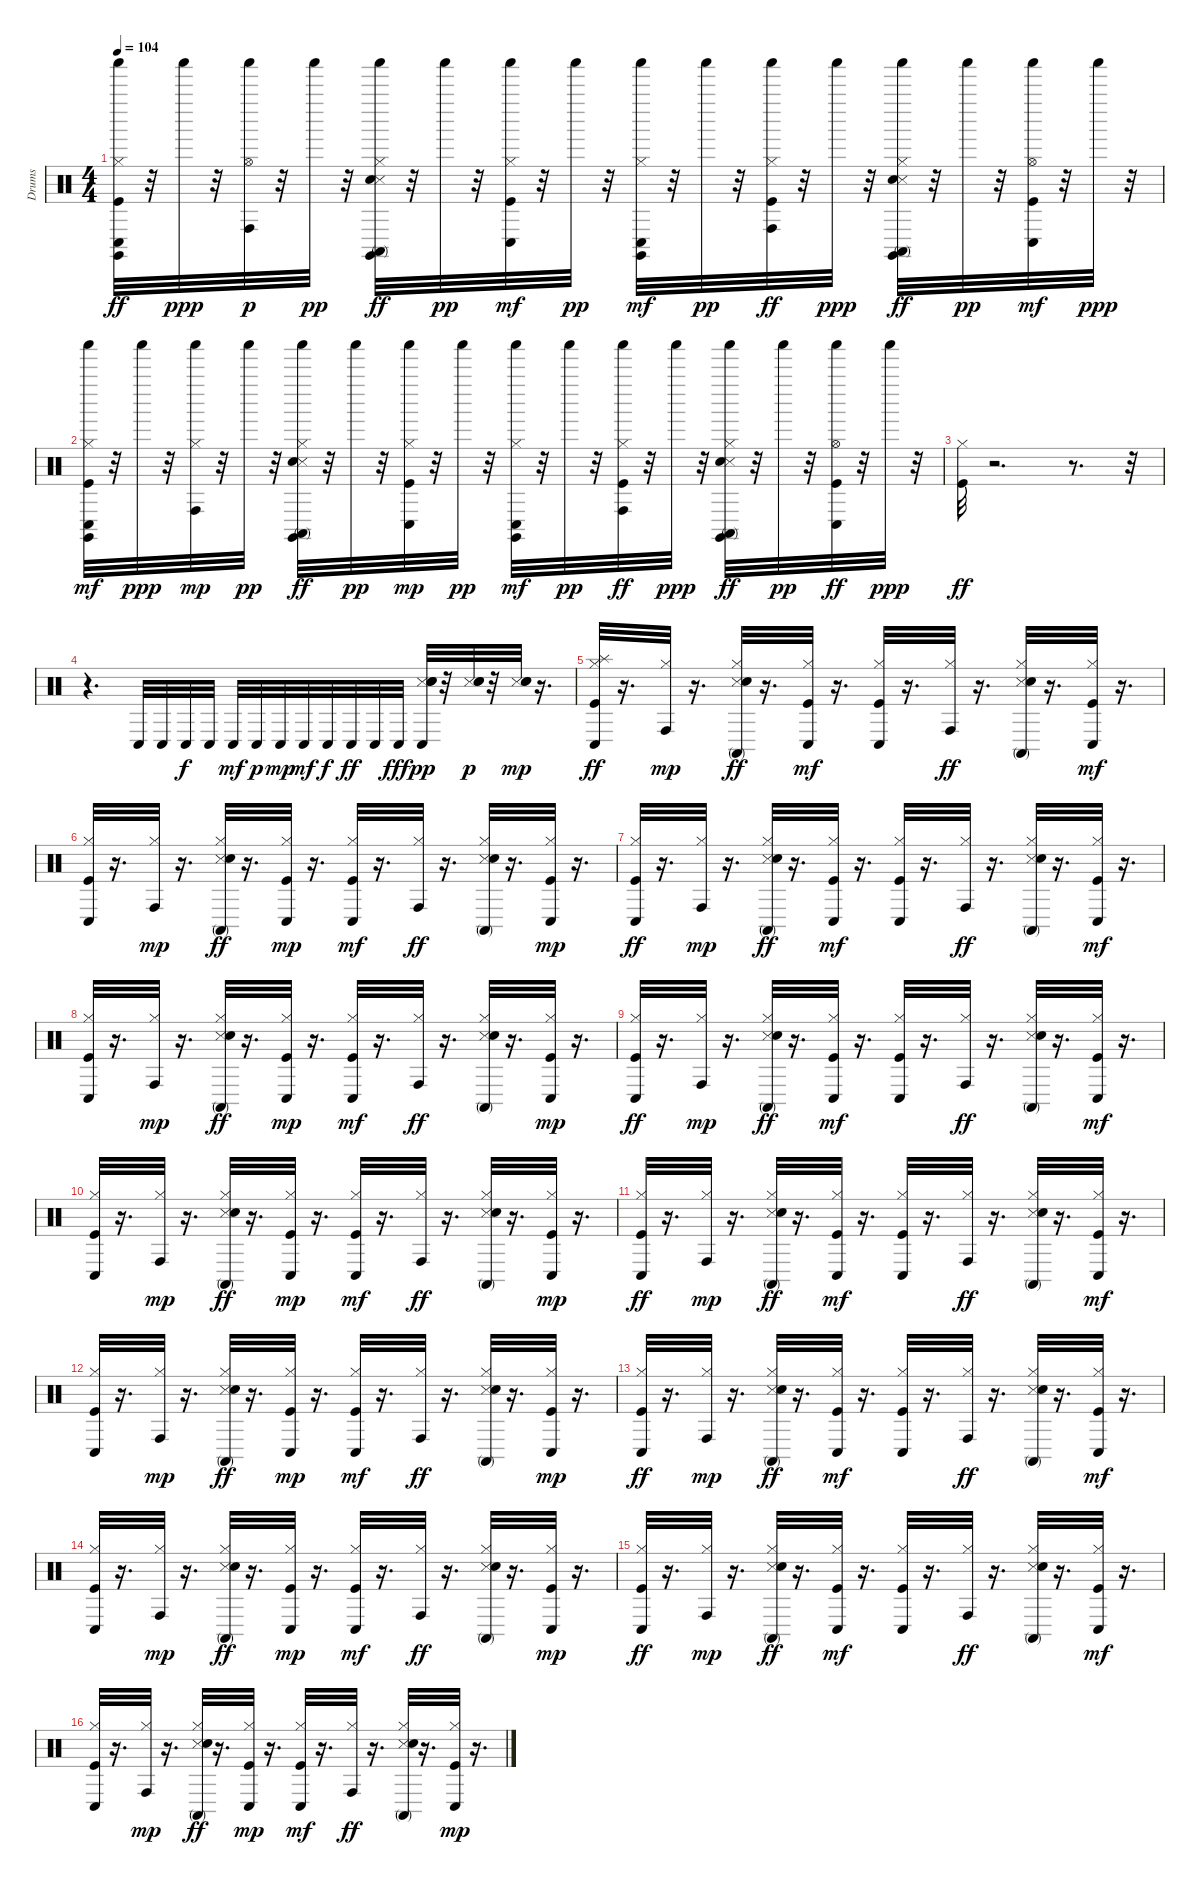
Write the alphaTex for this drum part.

\track ("Drums" "Drums") {instrument percussion}
\staff {score}
\articulation defaults
\ts (4 4)
\tempo 104
\clef neutral
\ks c
("Claves (hit)" "Shaker (hit)" "Kick (hit)" "Hi-Hat (closed)" "Conga low (hit)").32{dy ff} r.32 "Shaker (hit)".32{dy ppp} r.32 ("Hi-Hat (open)" "Shaker (hit)" "Conga high (hit)").32{dy p} r.32 "Shaker (hit)".32{dy pp} r.32 ("Claves (hit)" "Shaker (hit)" "Snare (side stick) 3" "Hi-Hat (closed)" "Conga high (mute)" "Snare (hit) 2").32{dy ff} r.32 "Shaker (hit)".32{dy pp} r.32 ("Shaker (hit)" "Kick (hit)" "Hi-Hat (closed)" "Conga low (hit)").32{dy mf} r.32 "Shaker (hit)".32{dy pp} r.32 ("Claves (hit)" "Shaker (hit)" "Hi-Hat (closed)" "Conga low (hit)").32{dy mf} r.32 "Shaker (hit)".32{dy pp} r.32 ("Shaker (hit)" "Kick (hit)" "Hi-Hat (closed)" "Conga high (hit)").32{dy ff} r.32 "Shaker (hit)".32{dy ppp} r.32 ("Claves (hit)" "Shaker (hit)" "Snare (side stick) 3" "Hi-Hat (closed)" "Conga high (mute)" "Snare (hit) 2").32{dy ff} r.32 "Shaker (hit)".32{dy pp} r.32 ("Hi-Hat (open)" "Shaker (hit)" "Kick (hit)" "Conga low (hit)").32{dy mf} r.32 "Shaker (hit)".32{dy ppp} r.32 |
("Claves (hit)" "Shaker (hit)" "Kick (hit)" "Hi-Hat (closed)" "Conga low (hit)").32{dy mf} r.32 "Shaker (hit)".32{dy ppp} r.32 ("Shaker (hit)" "Hi-Hat (closed)" "Conga high (hit)").32{dy mp} r.32 "Shaker (hit)".32{dy pp} r.32 ("Claves (hit)" "Shaker (hit)" "Snare (side stick) 3" "Hi-Hat (closed)" "Conga high (mute)" "Snare (hit) 2").32{dy ff} r.32 "Shaker (hit)".32{dy pp} r.32 ("Shaker (hit)" "Kick (hit)" "Hi-Hat (closed)" "Conga low (hit)").32{dy mp} r.32 "Shaker (hit)".32{dy pp} r.32 ("Claves (hit)" "Shaker (hit)" "Hi-Hat (closed)" "Conga low (hit)").32{dy mf} r.32 "Shaker (hit)".32{dy pp} r.32 ("Shaker (hit)" "Kick (hit)" "Hi-Hat (closed)" "Conga high (hit)").32{dy ff} r.32 "Shaker (hit)".32{dy ppp} r.32 ("Claves (hit)" "Shaker (hit)" "Snare (side stick) 3" "Hi-Hat (closed)" "Conga high (mute)" "Snare (hit) 2").32{dy ff} r.32 "Shaker (hit)".32{dy pp} r.32 ("Hi-Hat (open)" "Shaker (hit)" "Kick (hit)" "Conga low (hit)").32{dy ff} r.32 "Shaker (hit)".32{dy ppp} r.32 |
("Kick (hit)" "Hi-Hat (closed)").32{dy ff} r.2{d} r.8{d} r.32 |
r.4{d} "Conga low (hit)".32 "Conga low (hit)".32 "Conga low (hit)".32{dy f} "Conga low (hit)".32 "Conga low (hit)".32{dy mf} "Conga low (hit)".32{dy p} "Conga low (hit)".32{dy mp} "Conga low (hit)".32{dy mf} "Conga low (hit)".32{dy f} "Conga low (hit)".32{dy ff} "Conga low (hit)".32 "Conga low (hit)".32{dy fff} ("Snare (side stick) 3" "Conga low (hit)" "Snare (hit) 2" "Hand Clap (hit)").32{dy pp} r.32 ("Snare (side stick) 3" "Snare (hit) 2" "Hand Clap (hit)").32{dy p} r.32 ("Snare (side stick) 3" "Snare (hit) 2" "Hand Clap (hit)").32{dy mp} r.16{d} |
("Splash (hit)" "Kick (hit)" "Hi-Hat (closed)" "Conga low (hit)").32{dy ff} r.16{d} ("Hi-Hat (closed)" "Conga high (hit)").32{dy mp} r.16{d} ("Snare (side stick) 3" "Hi-Hat (closed)" "Conga high (mute)" "Snare (hit) 2").32{dy ff} r.16{d} ("Kick (hit)" "Hi-Hat (closed)" "Conga low (hit)").32{dy mf} r.16{d} ("Kick (hit)" "Hi-Hat (closed)" "Conga low (hit)").32 r.16{d} ("Hi-Hat (closed)" "Conga high (hit)").32{dy ff} r.16{d} ("Snare (side stick) 3" "Hi-Hat (closed)" "Conga high (mute)" "Snare (hit) 2").32 r.16{d} ("Kick (hit)" "Hi-Hat (closed)" "Conga low (hit)").32{dy mf} r.16{d} |
("Kick (hit)" "Hi-Hat (closed)" "Conga low (hit)").32 r.16{d} ("Hi-Hat (closed)" "Conga high (hit)").32{dy mp} r.16{d} ("Snare (side stick) 3" "Hi-Hat (closed)" "Conga high (mute)" "Snare (hit) 2").32{dy ff} r.16{d} ("Kick (hit)" "Hi-Hat (closed)" "Conga low (hit)").32{dy mp} r.16{d} ("Kick (hit)" "Hi-Hat (closed)" "Conga low (hit)").32{dy mf} r.16{d} ("Hi-Hat (closed)" "Conga high (hit)").32{dy ff} r.16{d} ("Snare (side stick) 3" "Hi-Hat (closed)" "Conga high (mute)" "Snare (hit) 2").32 r.16{d} ("Kick (hit)" "Hi-Hat (closed)" "Conga low (hit)").32{dy mp} r.16{d} |
("Kick (hit)" "Hi-Hat (closed)" "Conga low (hit)").32{dy ff} r.16{d} ("Hi-Hat (closed)" "Conga high (hit)").32{dy mp} r.16{d} ("Snare (side stick) 3" "Hi-Hat (closed)" "Conga high (mute)" "Snare (hit) 2").32{dy ff} r.16{d} ("Kick (hit)" "Hi-Hat (closed)" "Conga low (hit)").32{dy mf} r.16{d} ("Kick (hit)" "Hi-Hat (closed)" "Conga low (hit)").32 r.16{d} ("Hi-Hat (closed)" "Conga high (hit)").32{dy ff} r.16{d} ("Snare (side stick) 3" "Hi-Hat (closed)" "Conga high (mute)" "Snare (hit) 2").32 r.16{d} ("Kick (hit)" "Hi-Hat (closed)" "Conga low (hit)").32{dy mf} r.16{d} |
("Kick (hit)" "Hi-Hat (closed)" "Conga low (hit)").32 r.16{d} ("Hi-Hat (closed)" "Conga high (hit)").32{dy mp} r.16{d} ("Snare (side stick) 3" "Hi-Hat (closed)" "Conga high (mute)" "Snare (hit) 2").32{dy ff} r.16{d} ("Kick (hit)" "Hi-Hat (closed)" "Conga low (hit)").32{dy mp} r.16{d} ("Kick (hit)" "Hi-Hat (closed)" "Conga low (hit)").32{dy mf} r.16{d} ("Hi-Hat (closed)" "Conga high (hit)").32{dy ff} r.16{d} ("Snare (side stick) 3" "Hi-Hat (closed)" "Conga high (mute)" "Snare (hit) 2").32 r.16{d} ("Kick (hit)" "Hi-Hat (closed)" "Conga low (hit)").32{dy mp} r.16{d} |
("Kick (hit)" "Hi-Hat (closed)" "Conga low (hit)").32{dy ff} r.16{d} ("Hi-Hat (closed)" "Conga high (hit)").32{dy mp} r.16{d} ("Snare (side stick) 3" "Hi-Hat (closed)" "Conga high (mute)" "Snare (hit) 2").32{dy ff} r.16{d} ("Kick (hit)" "Hi-Hat (closed)" "Conga low (hit)").32{dy mf} r.16{d} ("Kick (hit)" "Hi-Hat (closed)" "Conga low (hit)").32 r.16{d} ("Hi-Hat (closed)" "Conga high (hit)").32{dy ff} r.16{d} ("Snare (side stick) 3" "Hi-Hat (closed)" "Conga high (mute)" "Snare (hit) 2").32 r.16{d} ("Kick (hit)" "Hi-Hat (closed)" "Conga low (hit)").32{dy mf} r.16{d} |
("Kick (hit)" "Hi-Hat (closed)" "Conga low (hit)").32 r.16{d} ("Hi-Hat (closed)" "Conga high (hit)").32{dy mp} r.16{d} ("Snare (side stick) 3" "Hi-Hat (closed)" "Conga high (mute)" "Snare (hit) 2").32{dy ff} r.16{d} ("Kick (hit)" "Hi-Hat (closed)" "Conga low (hit)").32{dy mp} r.16{d} ("Kick (hit)" "Hi-Hat (closed)" "Conga low (hit)").32{dy mf} r.16{d} ("Hi-Hat (closed)" "Conga high (hit)").32{dy ff} r.16{d} ("Snare (side stick) 3" "Hi-Hat (closed)" "Conga high (mute)" "Snare (hit) 2").32 r.16{d} ("Kick (hit)" "Hi-Hat (closed)" "Conga low (hit)").32{dy mp} r.16{d} |
("Kick (hit)" "Hi-Hat (closed)" "Conga low (hit)").32{dy ff} r.16{d} ("Hi-Hat (closed)" "Conga high (hit)").32{dy mp} r.16{d} ("Snare (side stick) 3" "Hi-Hat (closed)" "Conga high (mute)" "Snare (hit) 2").32{dy ff} r.16{d} ("Kick (hit)" "Hi-Hat (closed)" "Conga low (hit)").32{dy mf} r.16{d} ("Kick (hit)" "Hi-Hat (closed)" "Conga low (hit)").32 r.16{d} ("Hi-Hat (closed)" "Conga high (hit)").32{dy ff} r.16{d} ("Snare (side stick) 3" "Hi-Hat (closed)" "Conga high (mute)" "Snare (hit) 2").32 r.16{d} ("Kick (hit)" "Hi-Hat (closed)" "Conga low (hit)").32{dy mf} r.16{d} |
("Kick (hit)" "Hi-Hat (closed)" "Conga low (hit)").32 r.16{d} ("Hi-Hat (closed)" "Conga high (hit)").32{dy mp} r.16{d} ("Snare (side stick) 3" "Hi-Hat (closed)" "Conga high (mute)" "Snare (hit) 2").32{dy ff} r.16{d} ("Kick (hit)" "Hi-Hat (closed)" "Conga low (hit)").32{dy mp} r.16{d} ("Kick (hit)" "Hi-Hat (closed)" "Conga low (hit)").32{dy mf} r.16{d} ("Hi-Hat (closed)" "Conga high (hit)").32{dy ff} r.16{d} ("Snare (side stick) 3" "Hi-Hat (closed)" "Conga high (mute)" "Snare (hit) 2").32 r.16{d} ("Kick (hit)" "Hi-Hat (closed)" "Conga low (hit)").32{dy mp} r.16{d} |
("Kick (hit)" "Hi-Hat (closed)" "Conga low (hit)").32{dy ff} r.16{d} ("Hi-Hat (closed)" "Conga high (hit)").32{dy mp} r.16{d} ("Snare (side stick) 3" "Hi-Hat (closed)" "Conga high (mute)" "Snare (hit) 2").32{dy ff} r.16{d} ("Kick (hit)" "Hi-Hat (closed)" "Conga low (hit)").32{dy mf} r.16{d} ("Kick (hit)" "Hi-Hat (closed)" "Conga low (hit)").32 r.16{d} ("Hi-Hat (closed)" "Conga high (hit)").32{dy ff} r.16{d} ("Snare (side stick) 3" "Hi-Hat (closed)" "Conga high (mute)" "Snare (hit) 2").32 r.16{d} ("Kick (hit)" "Hi-Hat (closed)" "Conga low (hit)").32{dy mf} r.16{d} |
("Kick (hit)" "Hi-Hat (closed)" "Conga low (hit)").32 r.16{d} ("Hi-Hat (closed)" "Conga high (hit)").32{dy mp} r.16{d} ("Snare (side stick) 3" "Hi-Hat (closed)" "Conga high (mute)" "Snare (hit) 2").32{dy ff} r.16{d} ("Kick (hit)" "Hi-Hat (closed)" "Conga low (hit)").32{dy mp} r.16{d} ("Kick (hit)" "Hi-Hat (closed)" "Conga low (hit)").32{dy mf} r.16{d} ("Hi-Hat (closed)" "Conga high (hit)").32{dy ff} r.16{d} ("Snare (side stick) 3" "Hi-Hat (closed)" "Conga high (mute)" "Snare (hit) 2").32 r.16{d} ("Kick (hit)" "Hi-Hat (closed)" "Conga low (hit)").32{dy mp} r.16{d} |
("Kick (hit)" "Hi-Hat (closed)" "Conga low (hit)").32{dy ff} r.16{d} ("Hi-Hat (closed)" "Conga high (hit)").32{dy mp} r.16{d} ("Snare (side stick) 3" "Hi-Hat (closed)" "Conga high (mute)" "Snare (hit) 2").32{dy ff} r.16{d} ("Kick (hit)" "Hi-Hat (closed)" "Conga low (hit)").32{dy mf} r.16{d} ("Kick (hit)" "Hi-Hat (closed)" "Conga low (hit)").32 r.16{d} ("Hi-Hat (closed)" "Conga high (hit)").32{dy ff} r.16{d} ("Snare (side stick) 3" "Hi-Hat (closed)" "Conga high (mute)" "Snare (hit) 2").32 r.16{d} ("Kick (hit)" "Hi-Hat (closed)" "Conga low (hit)").32{dy mf} r.16{d} |
("Kick (hit)" "Hi-Hat (closed)" "Conga low (hit)").32 r.16{d} ("Hi-Hat (closed)" "Conga high (hit)").32{dy mp} r.16{d} ("Snare (side stick) 3" "Hi-Hat (closed)" "Conga high (mute)" "Snare (hit) 2").32{dy ff} r.16{d} ("Kick (hit)" "Hi-Hat (closed)" "Conga low (hit)").32{dy mp} r.16{d} ("Kick (hit)" "Hi-Hat (closed)" "Conga low (hit)").32{dy mf} r.16{d} ("Hi-Hat (closed)" "Conga high (hit)").32{dy ff} r.16{d} ("Snare (side stick) 3" "Hi-Hat (closed)" "Conga high (mute)" "Snare (hit) 2").32 r.16{d} ("Kick (hit)" "Hi-Hat (closed)" "Conga low (hit)").32{dy mp} r.16{d}
